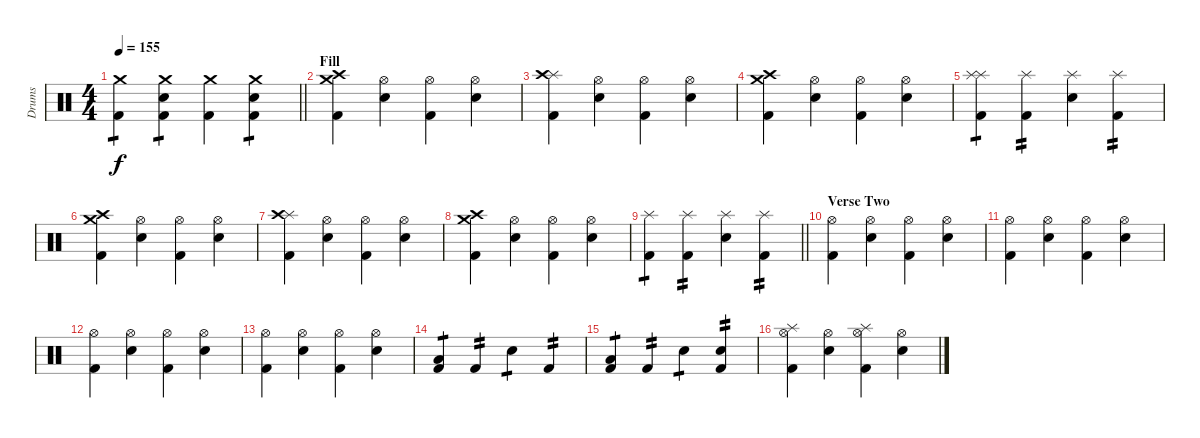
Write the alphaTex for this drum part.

\track ("Drums" "Drums") {instrument percussion}
\staff {score}
\articulation defaults
\ts (4 4)
\tempo 155
\clef neutral
\barLineRight lightlight
\ks c
("Crash medium (hit)" "Kick (hit) 2").4{tp 1 dy f} ("Crash medium (hit)" "Snare (hit) 2" "Kick (hit) 2").4{tp 1} ("Crash medium (hit)" "Kick (hit) 2").4 ("Crash medium (hit)" "Snare (hit) 2" "Kick (hit) 2").4{tp 1} |
\section ("" "Fill")
("Crash medium (hit)" "Crash high (hit)" "Kick (hit) 2").4 ("Hi-Hat (open)" "Snare (hit) 2").4 ("Hi-Hat (open)" "Kick (hit) 2").4 ("Hi-Hat (open)" "Snare (hit) 2").4 |
("Splash (hit)" "Crash high (hit)" "Kick (hit) 2").4 ("Hi-Hat (open)" "Snare (hit) 2").4 ("Hi-Hat (open)" "Kick (hit) 2").4 ("Hi-Hat (open)" "Snare (hit) 2").4 |
("Crash medium (hit)" "Crash high (hit)" "Kick (hit) 2").4 ("Hi-Hat (open)" "Snare (hit) 2").4 ("Hi-Hat (open)" "Kick (hit) 2").4 ("Hi-Hat (open)" "Snare (hit) 2").4 |
("Kick (hit) 2" "Splash (hit)" "Splash (hit)").4{tp 1} ("Kick (hit) 2" "Splash (hit)").4{tp 2} ("Snare (hit) 2" "Splash (hit)").4 ("Kick (hit) 2" "Splash (hit)").4{tp 2} |
("Crash medium (hit)" "Crash high (hit)" "Kick (hit) 2").4 ("Hi-Hat (open)" "Snare (hit) 2").4 ("Hi-Hat (open)" "Kick (hit) 2").4 ("Hi-Hat (open)" "Snare (hit) 2").4 |
("Splash (hit)" "Crash high (hit)" "Kick (hit) 2").4 ("Hi-Hat (open)" "Snare (hit) 2").4 ("Hi-Hat (open)" "Kick (hit) 2").4 ("Hi-Hat (open)" "Snare (hit) 2").4 |
("Crash medium (hit)" "Crash high (hit)" "Kick (hit) 2").4 ("Hi-Hat (open)" "Snare (hit) 2").4 ("Hi-Hat (open)" "Kick (hit) 2").4 ("Hi-Hat (open)" "Snare (hit) 2").4 |
\barLineRight lightlight
("Kick (hit) 2" "Splash (hit)").4{tp 1} ("Kick (hit) 2" "Splash (hit)").4{tp 2} ("Snare (hit) 2" "Splash (hit)").4 ("Kick (hit) 2" "Splash (hit)").4{tp 2} |
\section ("" "Verse Two")
("Hi-Hat (open)" "Kick (hit) 2").4 ("Hi-Hat (open)" "Snare (hit) 2").4 ("Hi-Hat (open)" "Kick (hit) 2").4 ("Hi-Hat (open)" "Snare (hit) 2").4 |
("Hi-Hat (open)" "Kick (hit) 2").4 ("Hi-Hat (open)" "Snare (hit) 2").4 ("Hi-Hat (open)" "Kick (hit) 2").4 ("Hi-Hat (open)" "Snare (hit) 2").4 |
("Hi-Hat (open)" "Kick (hit) 2").4 ("Hi-Hat (open)" "Snare (hit) 2").4 ("Hi-Hat (open)" "Kick (hit) 2").4 ("Hi-Hat (open)" "Snare (hit) 2").4 |
("Hi-Hat (open)" "Kick (hit) 2").4 ("Hi-Hat (open)" "Snare (hit) 2").4 ("Hi-Hat (open)" "Kick (hit) 2").4 ("Hi-Hat (open)" "Snare (hit) 2").4 |
("Kick (hit) 2" "Low Floor Tom (hit)").4{tp 1} "Kick (hit) 2".4{tp 2} "Snare (hit) 2".4{tp 1} "Kick (hit) 2".4{tp 2} |
("Kick (hit) 2" "Low Floor Tom (hit)").4{tp 1} "Kick (hit) 2".4{tp 2} "Snare (hit) 2".4{tp 1} ("Kick (hit) 2" "Snare (hit) 2").4{tp 2} |
("Hi-Hat (open)" "Kick (hit) 2" "Splash (hit)").4 ("Hi-Hat (open)" "Snare (hit) 2").4 ("Hi-Hat (open)" "Kick (hit) 2" "Splash (hit)").4 ("Hi-Hat (open)" "Snare (hit) 2").4
